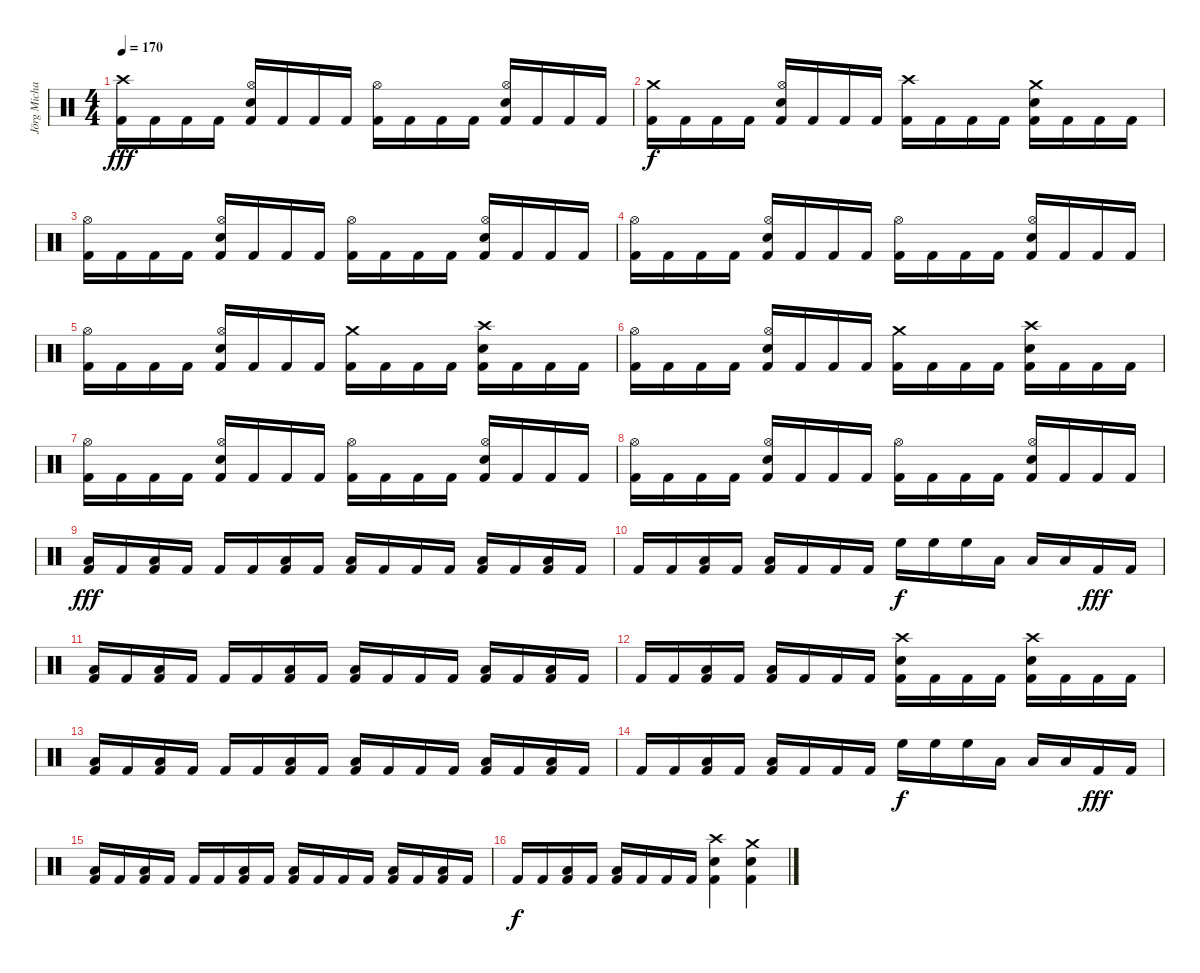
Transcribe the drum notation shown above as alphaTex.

\track ("Jörg Michael" "Jörg Micha") {instrument percussion}
\staff {score}
\articulation defaults
\ts (4 4)
\tempo 170
\clef neutral
\ks c
("Crash high (hit)" "Kick (hit) 2").16{dy fff} "Kick (hit) 2".16 "Kick (hit) 2".16 "Kick (hit) 2".16 ("Hi-Hat (open)" "Snare (hit) 2" "Kick (hit) 2").16 "Kick (hit) 2".16 "Kick (hit) 2".16 "Kick (hit) 2".16 ("Hi-Hat (open)" "Kick (hit) 2").16 "Kick (hit) 2".16 "Kick (hit) 2".16 "Kick (hit) 2".16 ("Hi-Hat (open)" "Snare (hit) 2" "Kick (hit) 2").16 "Kick (hit) 2".16 "Kick (hit) 2".16 "Kick (hit) 2".16 |
("Crash medium (hit)" "Kick (hit) 2").16{dy f} "Kick (hit) 2".16 "Kick (hit) 2".16 "Kick (hit) 2".16 ("Hi-Hat (open)" "Snare (hit) 2" "Kick (hit) 2").16 "Kick (hit) 2".16 "Kick (hit) 2".16 "Kick (hit) 2".16 ("Crash high (hit)" "Kick (hit) 2").16 "Kick (hit) 2".16 "Kick (hit) 2".16 "Kick (hit) 2".16 ("Crash medium (hit)" "Snare (hit) 2" "Kick (hit) 2").16 "Kick (hit) 2".16 "Kick (hit) 2".16 "Kick (hit) 2".16 |
("Hi-Hat (open)" "Kick (hit) 2").16 "Kick (hit) 2".16 "Kick (hit) 2".16 "Kick (hit) 2".16 ("Hi-Hat (open)" "Snare (hit) 2" "Kick (hit) 2").16 "Kick (hit) 2".16 "Kick (hit) 2".16 "Kick (hit) 2".16 ("Hi-Hat (open)" "Kick (hit) 2").16 "Kick (hit) 2".16 "Kick (hit) 2".16 "Kick (hit) 2".16 ("Hi-Hat (open)" "Snare (hit) 2" "Kick (hit) 2").16 "Kick (hit) 2".16 "Kick (hit) 2".16 "Kick (hit) 2".16 |
("Hi-Hat (open)" "Kick (hit) 2").16 "Kick (hit) 2".16 "Kick (hit) 2".16 "Kick (hit) 2".16 ("Hi-Hat (open)" "Snare (hit) 2" "Kick (hit) 2").16 "Kick (hit) 2".16 "Kick (hit) 2".16 "Kick (hit) 2".16 ("Hi-Hat (open)" "Kick (hit) 2").16 "Kick (hit) 2".16 "Kick (hit) 2".16 "Kick (hit) 2".16 ("Hi-Hat (open)" "Snare (hit) 2" "Kick (hit) 2").16 "Kick (hit) 2".16 "Kick (hit) 2".16 "Kick (hit) 2".16 |
("Hi-Hat (open)" "Kick (hit) 2").16 "Kick (hit) 2".16 "Kick (hit) 2".16 "Kick (hit) 2".16 ("Hi-Hat (open)" "Snare (hit) 2" "Kick (hit) 2").16 "Kick (hit) 2".16 "Kick (hit) 2".16 "Kick (hit) 2".16 ("Crash medium (hit)" "Kick (hit) 2").16 "Kick (hit) 2".16 "Kick (hit) 2".16 "Kick (hit) 2".16 ("Crash high (hit)" "Snare (hit) 2" "Kick (hit) 2").16 "Kick (hit) 2".16 "Kick (hit) 2".16 "Kick (hit) 2".16 |
("Hi-Hat (open)" "Kick (hit) 2").16 "Kick (hit) 2".16 "Kick (hit) 2".16 "Kick (hit) 2".16 ("Hi-Hat (open)" "Snare (hit) 2" "Kick (hit) 2").16 "Kick (hit) 2".16 "Kick (hit) 2".16 "Kick (hit) 2".16 ("Crash medium (hit)" "Kick (hit) 2").16 "Kick (hit) 2".16 "Kick (hit) 2".16 "Kick (hit) 2".16 ("Crash high (hit)" "Snare (hit) 2" "Kick (hit) 2").16 "Kick (hit) 2".16 "Kick (hit) 2".16 "Kick (hit) 2".16 |
("Hi-Hat (open)" "Kick (hit) 2").16 "Kick (hit) 2".16 "Kick (hit) 2".16 "Kick (hit) 2".16 ("Hi-Hat (open)" "Snare (hit) 2" "Kick (hit) 2").16 "Kick (hit) 2".16 "Kick (hit) 2".16 "Kick (hit) 2".16 ("Hi-Hat (open)" "Kick (hit) 2").16 "Kick (hit) 2".16 "Kick (hit) 2".16 "Kick (hit) 2".16 ("Hi-Hat (open)" "Snare (hit) 2" "Kick (hit) 2").16 "Kick (hit) 2".16 "Kick (hit) 2".16 "Kick (hit) 2".16 |
("Hi-Hat (open)" "Kick (hit) 2").16 "Kick (hit) 2".16 "Kick (hit) 2".16 "Kick (hit) 2".16 ("Hi-Hat (open)" "Snare (hit) 2" "Kick (hit) 2").16 "Kick (hit) 2".16 "Kick (hit) 2".16 "Kick (hit) 2".16 ("Hi-Hat (open)" "Kick (hit) 2").16 "Kick (hit) 2".16 "Kick (hit) 2".16 "Kick (hit) 2".16 ("Hi-Hat (open)" "Snare (hit) 2" "Kick (hit) 2").16 "Kick (hit) 2".16 "Kick (hit) 2".16 "Kick (hit) 2".16 |
("Low Floor Tom (hit)" "Kick (hit) 2").16{dy fff} "Kick (hit) 2".16 ("Low Floor Tom (hit)" "Kick (hit) 2").16 "Kick (hit) 2".16 "Kick (hit) 2".16 "Kick (hit) 2".16 ("Low Floor Tom (hit)" "Kick (hit) 2").16 "Kick (hit) 2".16 ("Low Floor Tom (hit)" "Kick (hit) 2").16 "Kick (hit) 2".16 "Kick (hit) 2".16 "Kick (hit) 2".16 ("Low Floor Tom (hit)" "Kick (hit) 2").16 "Kick (hit) 2".16 ("Low Floor Tom (hit)" "Kick (hit) 2").16 "Kick (hit) 2".16 |
"Kick (hit) 2".16 "Kick (hit) 2".16 ("Low Floor Tom (hit)" "Kick (hit) 2").16 "Kick (hit) 2".16 ("Low Floor Tom (hit)" "Kick (hit) 2").16 "Kick (hit) 2".16 "Kick (hit) 2".16 "Kick (hit) 2".16 "High Floor Tom (hit)".16{dy f} "High Floor Tom (hit)".16 "High Floor Tom (hit)".16 "Low Tom (hit)".16 "Low Tom (hit)".16 "Low Tom (hit)".16 "Kick (hit) 2".16{dy fff} "Kick (hit) 2".16 |
("Low Floor Tom (hit)" "Kick (hit) 2").16 "Kick (hit) 2".16 ("Low Floor Tom (hit)" "Kick (hit) 2").16 "Kick (hit) 2".16 "Kick (hit) 2".16 "Kick (hit) 2".16 ("Low Floor Tom (hit)" "Kick (hit) 2").16 "Kick (hit) 2".16 ("Low Floor Tom (hit)" "Kick (hit) 2").16 "Kick (hit) 2".16 "Kick (hit) 2".16 "Kick (hit) 2".16 ("Low Floor Tom (hit)" "Kick (hit) 2").16 "Kick (hit) 2".16 ("Low Floor Tom (hit)" "Kick (hit) 2").16 "Kick (hit) 2".16 |
"Kick (hit) 2".16 "Kick (hit) 2".16 ("Low Floor Tom (hit)" "Kick (hit) 2").16 "Kick (hit) 2".16 ("Low Floor Tom (hit)" "Kick (hit) 2").16 "Kick (hit) 2".16 "Kick (hit) 2".16 "Kick (hit) 2".16 ("Crash high (hit)" "Snare (hit) 2" "Kick (hit) 2").16 "Kick (hit) 2".16 "Kick (hit) 2".16 "Kick (hit) 2".16 ("Crash high (hit)" "Snare (hit) 2" "Kick (hit) 2").16 "Kick (hit) 2".16 "Kick (hit) 2".16 "Kick (hit) 2".16 |
("Low Floor Tom (hit)" "Kick (hit) 2").16 "Kick (hit) 2".16 ("Low Floor Tom (hit)" "Kick (hit) 2").16 "Kick (hit) 2".16 "Kick (hit) 2".16 "Kick (hit) 2".16 ("Low Floor Tom (hit)" "Kick (hit) 2").16 "Kick (hit) 2".16 ("Low Floor Tom (hit)" "Kick (hit) 2").16 "Kick (hit) 2".16 "Kick (hit) 2".16 "Kick (hit) 2".16 ("Low Floor Tom (hit)" "Kick (hit) 2").16 "Kick (hit) 2".16 ("Low Floor Tom (hit)" "Kick (hit) 2").16 "Kick (hit) 2".16 |
"Kick (hit) 2".16 "Kick (hit) 2".16 ("Low Floor Tom (hit)" "Kick (hit) 2").16 "Kick (hit) 2".16 ("Low Floor Tom (hit)" "Kick (hit) 2").16 "Kick (hit) 2".16 "Kick (hit) 2".16 "Kick (hit) 2".16 "High Floor Tom (hit)".16{dy f} "High Floor Tom (hit)".16 "High Floor Tom (hit)".16 "Low Tom (hit)".16 "Low Tom (hit)".16 "Low Tom (hit)".16 "Kick (hit) 2".16{dy fff} "Kick (hit) 2".16 |
("Low Floor Tom (hit)" "Kick (hit) 2").16 "Kick (hit) 2".16 ("Low Floor Tom (hit)" "Kick (hit) 2").16 "Kick (hit) 2".16 "Kick (hit) 2".16 "Kick (hit) 2".16 ("Low Floor Tom (hit)" "Kick (hit) 2").16 "Kick (hit) 2".16 ("Low Floor Tom (hit)" "Kick (hit) 2").16 "Kick (hit) 2".16 "Kick (hit) 2".16 "Kick (hit) 2".16 ("Low Floor Tom (hit)" "Kick (hit) 2").16 "Kick (hit) 2".16 ("Low Floor Tom (hit)" "Kick (hit) 2").16 "Kick (hit) 2".16 |
"Kick (hit) 2".16{dy f} "Kick (hit) 2".16 ("Low Floor Tom (hit)" "Kick (hit) 2").16 "Kick (hit) 2".16 ("Low Floor Tom (hit)" "Kick (hit) 2").16 "Kick (hit) 2".16 "Kick (hit) 2".16 "Kick (hit) 2".16 ("Crash high (hit)" "Snare (hit) 2" "Kick (hit) 2").4 ("Crash medium (hit)" "Snare (hit) 2" "Kick (hit) 2").4
